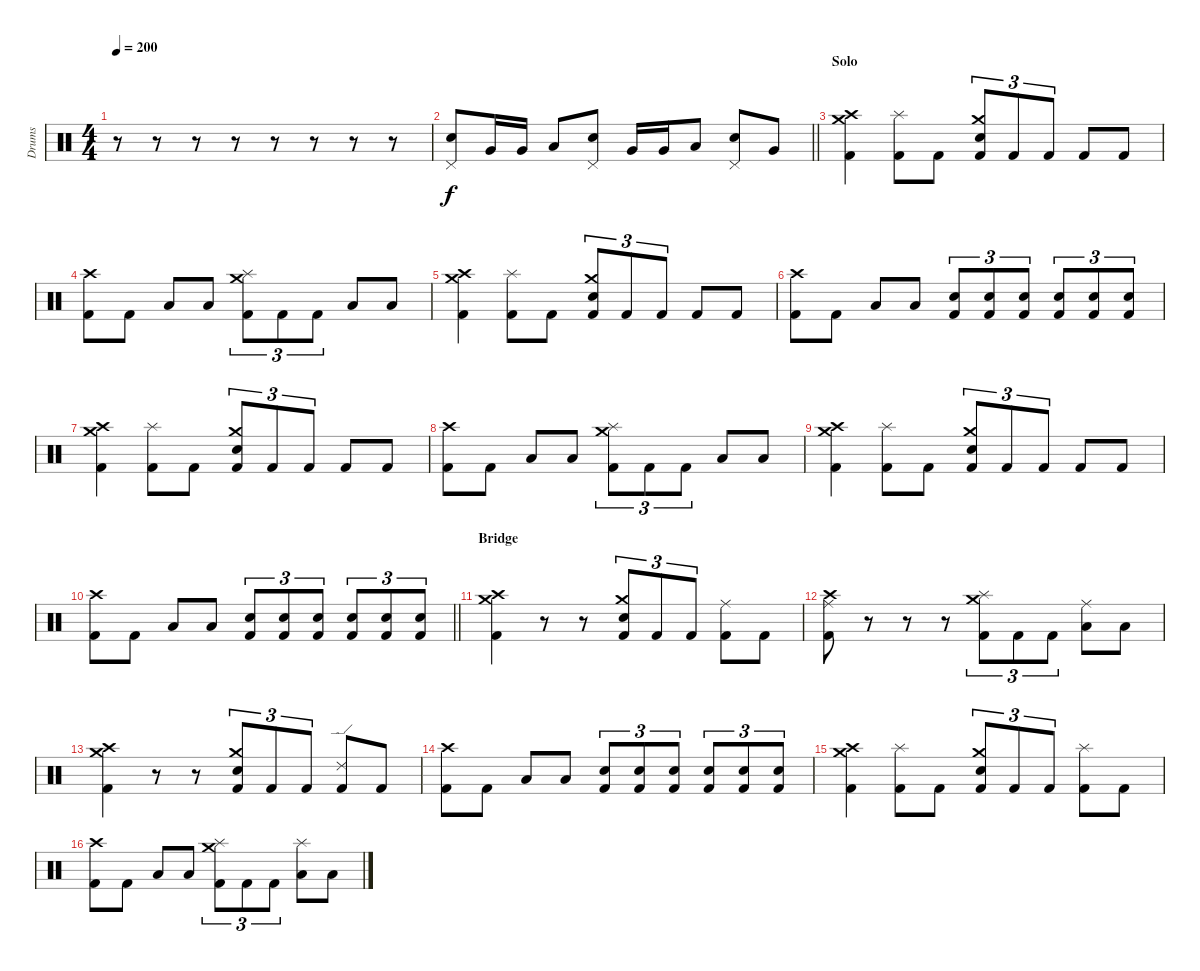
\track ("Drums" "Drums") {instrument percussion}
\staff {score}
\articulation defaults
\ts (4 4)
\tempo 200
\clef neutral
\ks c
r.8{dy f} r.8 r.8 r.8 r.8 r.8 r.8 r.8 |
\barLineRight lightlight
("Pedal Hi-Hat (hit)" "Snare (hit) 2").8 "Very Low Tom (hit)".16 "Very Low Tom (hit)".16 "Low Floor Tom (hit)".8 ("Pedal Hi-Hat (hit)" "Snare (hit) 2").8 "Very Low Tom (hit)".16 "Very Low Tom (hit)".16 "Low Floor Tom (hit)".8 ("Pedal Hi-Hat (hit)" "Snare (hit) 2").8 "Very Low Tom (hit)".8 |
\section ("" "Solo")
("Crash high (hit)" "Crash medium (hit)" "Kick (hit) 2").4 ("Splash (hit)" "Kick (hit) 2").8 "Kick (hit) 2".8 ("Crash medium (hit)" "Snare (hit) 2" "Kick (hit) 2").8{tu (3 2)} "Kick (hit) 2".8{tu (3 2)} "Kick (hit) 2".8{tu (3 2)} "Kick (hit) 2".8 "Kick (hit) 2".8 |
("Crash high (hit)" "Kick (hit) 2").8 "Kick (hit) 2".8 "Low Tom (hit)".8 "Low Tom (hit)".8 ("Crash medium (hit)" "Splash (hit)" "Kick (hit) 2").8{tu (3 2)} "Kick (hit) 2".8{tu (3 2)} "Kick (hit) 2".8{tu (3 2)} "Low Tom (hit)".8 "Low Tom (hit)".8 |
("Crash high (hit)" "Crash medium (hit)" "Kick (hit) 2").4 ("Splash (hit)" "Kick (hit) 2").8 "Kick (hit) 2".8 ("Crash medium (hit)" "Snare (hit) 2" "Kick (hit) 2").8{tu (3 2)} "Kick (hit) 2".8{tu (3 2)} "Kick (hit) 2".8{tu (3 2)} "Kick (hit) 2".8 "Kick (hit) 2".8 |
("Crash high (hit)" "Kick (hit) 2").8 "Kick (hit) 2".8 "Low Tom (hit)".8 "Low Tom (hit)".8 ("Snare (hit) 2" "Kick (hit) 2").8{tu (3 2)} ("Snare (hit) 2" "Kick (hit) 2").8{tu (3 2)} ("Snare (hit) 2" "Kick (hit) 2").8{tu (3 2)} ("Snare (hit) 2" "Kick (hit) 2").8{tu (3 2)} ("Snare (hit) 2" "Kick (hit) 2").8{tu (3 2)} ("Snare (hit) 2" "Kick (hit) 2").8{tu (3 2)} |
("Crash high (hit)" "Crash medium (hit)" "Kick (hit) 2").4 ("Splash (hit)" "Kick (hit) 2").8 "Kick (hit) 2".8 ("Crash medium (hit)" "Snare (hit) 2" "Kick (hit) 2").8{tu (3 2)} "Kick (hit) 2".8{tu (3 2)} "Kick (hit) 2".8{tu (3 2)} "Kick (hit) 2".8 "Kick (hit) 2".8 |
("Crash high (hit)" "Kick (hit) 2").8 "Kick (hit) 2".8 "Low Tom (hit)".8 "Low Tom (hit)".8 ("Crash medium (hit)" "Splash (hit)" "Kick (hit) 2").8{tu (3 2)} "Kick (hit) 2".8{tu (3 2)} "Kick (hit) 2".8{tu (3 2)} "Low Tom (hit)".8 "Low Tom (hit)".8 |
("Crash high (hit)" "Crash medium (hit)" "Kick (hit) 2").4 ("Splash (hit)" "Kick (hit) 2").8 "Kick (hit) 2".8 ("Crash medium (hit)" "Snare (hit) 2" "Kick (hit) 2").8{tu (3 2)} "Kick (hit) 2".8{tu (3 2)} "Kick (hit) 2".8{tu (3 2)} "Kick (hit) 2".8 "Kick (hit) 2".8 |
\barLineRight lightlight
("Crash high (hit)" "Kick (hit) 2").8 "Kick (hit) 2".8 "Low Tom (hit)".8 "Low Tom (hit)".8 ("Snare (hit) 2" "Kick (hit) 2").8{tu (3 2)} ("Snare (hit) 2" "Kick (hit) 2").8{tu (3 2)} ("Snare (hit) 2" "Kick (hit) 2").8{tu (3 2)} ("Snare (hit) 2" "Kick (hit) 2").8{tu (3 2)} ("Snare (hit) 2" "Kick (hit) 2").8{tu (3 2)} ("Snare (hit) 2" "Kick (hit) 2").8{tu (3 2)} |
\section ("" "Bridge")
("Crash high (hit)" "Crash medium (hit)" "Kick (hit) 2").4 r.8 r.8 ("Crash medium (hit)" "Snare (hit) 2" "Kick (hit) 2").8{tu (3 2)} "Kick (hit) 2".8{tu (3 2)} "Kick (hit) 2".8{tu (3 2)} ("Ride (middle)" "Kick (hit) 2").8 "Kick (hit) 2".8 |
("Ride (middle)" "Crash high (hit)" "Kick (hit) 2").8 r.8 r.8 r.8 ("Crash medium (hit)" "Splash (hit)" "Kick (hit) 2").8{tu (3 2)} "Kick (hit) 2".8{tu (3 2)} "Kick (hit) 2".8{tu (3 2)} ("Ride (middle)" "Low Tom (hit)").8 "Low Tom (hit)".8 |
("Crash high (hit)" "Crash medium (hit)" "Kick (hit) 2").4 r.8 r.8 ("Crash medium (hit)" "Snare (hit) 2" "Kick (hit) 2").8{tu (3 2)} "Kick (hit) 2".8{tu (3 2)} "Kick (hit) 2".8{tu (3 2)} ("Ride (edge) 2" "Kick (hit) 2").8 "Kick (hit) 2".8 |
("Crash high (hit)" "Kick (hit) 2").8 "Kick (hit) 2".8 "Low Tom (hit)".8 "Low Tom (hit)".8 ("Snare (hit) 2" "Kick (hit) 2").8{tu (3 2)} ("Snare (hit) 2" "Kick (hit) 2").8{tu (3 2)} ("Snare (hit) 2" "Kick (hit) 2").8{tu (3 2)} ("Snare (hit) 2" "Kick (hit) 2").8{tu (3 2)} ("Snare (hit) 2" "Kick (hit) 2").8{tu (3 2)} ("Snare (hit) 2" "Kick (hit) 2").8{tu (3 2)} |
("Crash high (hit)" "Crash medium (hit)" "Kick (hit) 2").4 ("Splash (hit)" "Kick (hit) 2").8 "Kick (hit) 2".8 ("Crash medium (hit)" "Snare (hit) 2" "Kick (hit) 2").8{tu (3 2)} "Kick (hit) 2".8{tu (3 2)} "Kick (hit) 2".8{tu (3 2)} ("Splash (hit)" "Kick (hit) 2").8 "Kick (hit) 2".8 |
("Crash high (hit)" "Kick (hit) 2").8 "Kick (hit) 2".8 "Low Tom (hit)".8 "Low Tom (hit)".8 ("Crash medium (hit)" "Splash (hit)" "Kick (hit) 2").8{tu (3 2)} "Kick (hit) 2".8{tu (3 2)} "Kick (hit) 2".8{tu (3 2)} ("Splash (hit)" "Low Tom (hit)").8 "Low Tom (hit)".8
